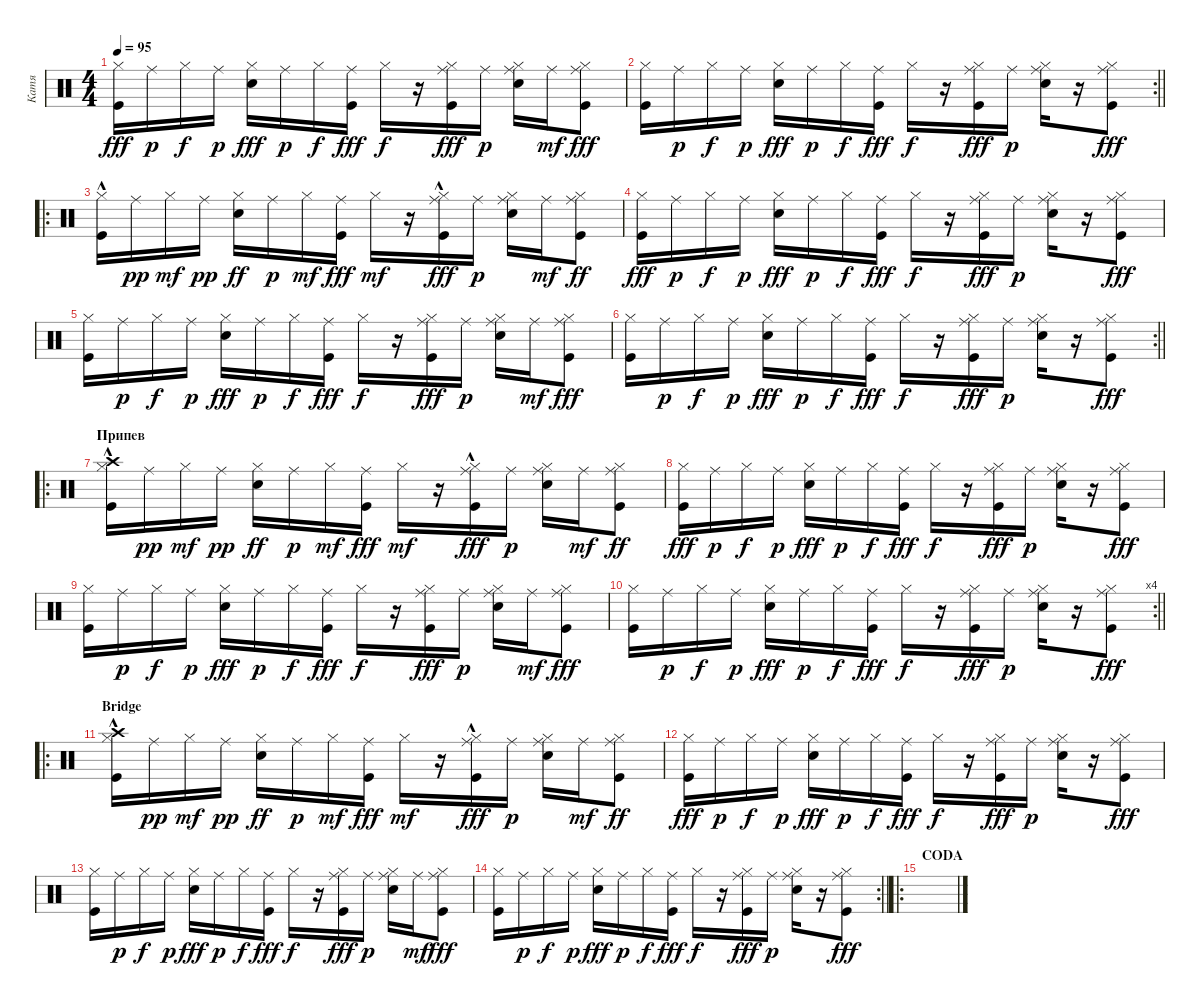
\track ("Катя" "Катя") {instrument percussion}
\staff {score}
\articulation defaults
\ts (4 4)
\tempo 95
\clef neutral
\ks c
("Hi-Hat (closed)" "Kick (hit)").16{dy fff} "Ride (middle)".16{dy p} "Hi-Hat (closed)".16{dy f} "Ride (middle)".16{dy p} ("Hi-Hat (closed)" "Snare (hit) 2").16{dy fff} "Ride (middle)".16{dy p} "Hi-Hat (closed)".16{dy f} ("Ride (middle)" "Kick (hit)").16{dy fff} "Hi-Hat (closed)".16{dy f} r.16 ("Hi-Hat (closed)" "Ride (middle)" "Kick (hit)").16{dy fff} "Ride (middle)".16{dy p} ("Hi-Hat (closed)" "Snare (hit) 2" "Ride (middle)").16 "Ride (middle)".16{dy mf} ("Hi-Hat (closed)" "Ride (middle)" "Kick (hit)").8{dy fff} |
\rc 2
\barLineRight lightlight
("Hi-Hat (closed)" "Kick (hit)").16 "Ride (middle)".16{dy p} "Hi-Hat (closed)".16{dy f} "Ride (middle)".16{dy p} ("Hi-Hat (closed)" "Snare (hit) 2").16{dy fff} "Ride (middle)".16{dy p} "Hi-Hat (closed)".16{dy f} ("Ride (middle)" "Kick (hit)").16{dy fff} "Hi-Hat (closed)".16{dy f} r.16 ("Hi-Hat (closed)" "Ride (middle)" "Kick (hit)").16{dy fff} "Ride (middle)".16{dy p} ("Hi-Hat (closed)" "Snare (hit) 2" "Ride (middle)").16 r.16 ("Hi-Hat (closed)" "Ride (middle)" "Kick (hit)").8{dy fff} |
\ro
("Hi-Hat (closed)" "Kick (hit)"{hac}).16 "Ride (middle)".16{dy pp} "Hi-Hat (closed)".16{dy mf} "Ride (middle)".16{dy pp} ("Hi-Hat (closed)" "Snare (hit) 2").16{dy ff} "Ride (middle)".16{dy p} "Hi-Hat (closed)".16{dy mf} ("Ride (middle)" "Kick (hit)").16{dy fff} "Hi-Hat (closed)".16{dy mf} r.16 ("Hi-Hat (closed)" "Ride (middle)" "Kick (hit)"{hac}).16{dy fff} "Ride (middle)".16{dy p} ("Hi-Hat (closed)" "Snare (hit) 2" "Ride (middle)").16 "Ride (middle)".16{dy mf} ("Hi-Hat (closed)" "Ride (middle)" "Kick (hit)").8{dy ff} |
("Hi-Hat (closed)" "Kick (hit)").16{dy fff} "Ride (middle)".16{dy p} "Hi-Hat (closed)".16{dy f} "Ride (middle)".16{dy p} ("Hi-Hat (closed)" "Snare (hit) 2").16{dy fff} "Ride (middle)".16{dy p} "Hi-Hat (closed)".16{dy f} ("Ride (middle)" "Kick (hit)").16{dy fff} "Hi-Hat (closed)".16{dy f} r.16 ("Hi-Hat (closed)" "Ride (middle)" "Kick (hit)").16{dy fff} "Ride (middle)".16{dy p} ("Hi-Hat (closed)" "Snare (hit) 2" "Ride (middle)").16 r.16 ("Hi-Hat (closed)" "Ride (middle)" "Kick (hit)").8{dy fff} |
("Hi-Hat (closed)" "Kick (hit)").16 "Ride (middle)".16{dy p} "Hi-Hat (closed)".16{dy f} "Ride (middle)".16{dy p} ("Hi-Hat (closed)" "Snare (hit) 2").16{dy fff} "Ride (middle)".16{dy p} "Hi-Hat (closed)".16{dy f} ("Ride (middle)" "Kick (hit)").16{dy fff} "Hi-Hat (closed)".16{dy f} r.16 ("Hi-Hat (closed)" "Ride (middle)" "Kick (hit)").16{dy fff} "Ride (middle)".16{dy p} ("Hi-Hat (closed)" "Snare (hit) 2" "Ride (middle)").16 "Ride (middle)".16{dy mf} ("Hi-Hat (closed)" "Ride (middle)" "Kick (hit)").8{dy fff} |
\rc 2
\barLineRight lightlight
("Hi-Hat (closed)" "Kick (hit)").16 "Ride (middle)".16{dy p} "Hi-Hat (closed)".16{dy f} "Ride (middle)".16{dy p} ("Hi-Hat (closed)" "Snare (hit) 2").16{dy fff} "Ride (middle)".16{dy p} "Hi-Hat (closed)".16{dy f} ("Ride (middle)" "Kick (hit)").16{dy fff} "Hi-Hat (closed)".16{dy f} r.16 ("Hi-Hat (closed)" "Ride (middle)" "Kick (hit)").16{dy fff} "Ride (middle)".16{dy p} ("Hi-Hat (closed)" "Snare (hit) 2" "Ride (middle)").16 r.16 ("Hi-Hat (closed)" "Ride (middle)" "Kick (hit)").8{dy fff} |
\ro
\section ("" "Припев")
("Hi-Hat (closed)" "Crash high (hit)" "Kick (hit)"{hac}).16 "Ride (middle)".16{dy pp} "Hi-Hat (closed)".16{dy mf} "Ride (middle)".16{dy pp} ("Hi-Hat (closed)" "Snare (hit) 2").16{dy ff} "Ride (middle)".16{dy p} "Hi-Hat (closed)".16{dy mf} ("Ride (middle)" "Kick (hit)").16{dy fff} "Hi-Hat (closed)".16{dy mf} r.16 ("Hi-Hat (closed)" "Ride (middle)" "Kick (hit)"{hac}).16{dy fff} "Ride (middle)".16{dy p} ("Hi-Hat (closed)" "Snare (hit) 2" "Ride (middle)").16 "Ride (middle)".16{dy mf} ("Hi-Hat (closed)" "Ride (middle)" "Kick (hit)").8{dy ff} |
("Hi-Hat (closed)" "Kick (hit)").16{dy fff} "Ride (middle)".16{dy p} "Hi-Hat (closed)".16{dy f} "Ride (middle)".16{dy p} ("Hi-Hat (closed)" "Snare (hit) 2").16{dy fff} "Ride (middle)".16{dy p} "Hi-Hat (closed)".16{dy f} ("Ride (middle)" "Kick (hit)").16{dy fff} "Hi-Hat (closed)".16{dy f} r.16 ("Hi-Hat (closed)" "Ride (middle)" "Kick (hit)").16{dy fff} "Ride (middle)".16{dy p} ("Hi-Hat (closed)" "Snare (hit) 2" "Ride (middle)").16 r.16 ("Hi-Hat (closed)" "Ride (middle)" "Kick (hit)").8{dy fff} |
("Hi-Hat (closed)" "Kick (hit)").16 "Ride (middle)".16{dy p} "Hi-Hat (closed)".16{dy f} "Ride (middle)".16{dy p} ("Hi-Hat (closed)" "Snare (hit) 2").16{dy fff} "Ride (middle)".16{dy p} "Hi-Hat (closed)".16{dy f} ("Ride (middle)" "Kick (hit)").16{dy fff} "Hi-Hat (closed)".16{dy f} r.16 ("Hi-Hat (closed)" "Ride (middle)" "Kick (hit)").16{dy fff} "Ride (middle)".16{dy p} ("Hi-Hat (closed)" "Snare (hit) 2" "Ride (middle)").16 "Ride (middle)".16{dy mf} ("Hi-Hat (closed)" "Ride (middle)" "Kick (hit)").8{dy fff} |
\rc 4
\barLineRight lightlight
("Hi-Hat (closed)" "Kick (hit)").16 "Ride (middle)".16{dy p} "Hi-Hat (closed)".16{dy f} "Ride (middle)".16{dy p} ("Hi-Hat (closed)" "Snare (hit) 2").16{dy fff} "Ride (middle)".16{dy p} "Hi-Hat (closed)".16{dy f} ("Ride (middle)" "Kick (hit)").16{dy fff} "Hi-Hat (closed)".16{dy f} r.16 ("Hi-Hat (closed)" "Ride (middle)" "Kick (hit)").16{dy fff} "Ride (middle)".16{dy p} ("Hi-Hat (closed)" "Snare (hit) 2" "Ride (middle)").16 r.16 ("Hi-Hat (closed)" "Ride (middle)" "Kick (hit)").8{dy fff} |
\ro
\section ("" "Bridge")
("Hi-Hat (closed)" "Crash high (hit)" "Kick (hit)"{hac}).16 "Ride (middle)".16{dy pp} "Hi-Hat (closed)".16{dy mf} "Ride (middle)".16{dy pp} ("Hi-Hat (closed)" "Snare (hit) 2").16{dy ff} "Ride (middle)".16{dy p} "Hi-Hat (closed)".16{dy mf} ("Ride (middle)" "Kick (hit)").16{dy fff} "Hi-Hat (closed)".16{dy mf} r.16 ("Hi-Hat (closed)" "Ride (middle)" "Kick (hit)"{hac}).16{dy fff} "Ride (middle)".16{dy p} ("Hi-Hat (closed)" "Snare (hit) 2" "Ride (middle)").16 "Ride (middle)".16{dy mf} ("Hi-Hat (closed)" "Ride (middle)" "Kick (hit)").8{dy ff} |
("Hi-Hat (closed)" "Kick (hit)").16{dy fff} "Ride (middle)".16{dy p} "Hi-Hat (closed)".16{dy f} "Ride (middle)".16{dy p} ("Hi-Hat (closed)" "Snare (hit) 2").16{dy fff} "Ride (middle)".16{dy p} "Hi-Hat (closed)".16{dy f} ("Ride (middle)" "Kick (hit)").16{dy fff} "Hi-Hat (closed)".16{dy f} r.16 ("Hi-Hat (closed)" "Ride (middle)" "Kick (hit)").16{dy fff} "Ride (middle)".16{dy p} ("Hi-Hat (closed)" "Snare (hit) 2" "Ride (middle)").16 r.16 ("Hi-Hat (closed)" "Ride (middle)" "Kick (hit)").8{dy fff} |
("Hi-Hat (closed)" "Kick (hit)").16 "Ride (middle)".16{dy p} "Hi-Hat (closed)".16{dy f} "Ride (middle)".16{dy p} ("Hi-Hat (closed)" "Snare (hit) 2").16{dy fff} "Ride (middle)".16{dy p} "Hi-Hat (closed)".16{dy f} ("Ride (middle)" "Kick (hit)").16{dy fff} "Hi-Hat (closed)".16{dy f} r.16 ("Hi-Hat (closed)" "Ride (middle)" "Kick (hit)").16{dy fff} "Ride (middle)".16{dy p} ("Hi-Hat (closed)" "Snare (hit) 2" "Ride (middle)").16 "Ride (middle)".16{dy mf} ("Hi-Hat (closed)" "Ride (middle)" "Kick (hit)").8{dy fff} |
\rc 2
\barLineRight lightlight
("Hi-Hat (closed)" "Kick (hit)").16 "Ride (middle)".16{dy p} "Hi-Hat (closed)".16{dy f} "Ride (middle)".16{dy p} ("Hi-Hat (closed)" "Snare (hit) 2").16{dy fff} "Ride (middle)".16{dy p} "Hi-Hat (closed)".16{dy f} ("Ride (middle)" "Kick (hit)").16{dy fff} "Hi-Hat (closed)".16{dy f} r.16 ("Hi-Hat (closed)" "Ride (middle)" "Kick (hit)").16{dy fff} "Ride (middle)".16{dy p} ("Hi-Hat (closed)" "Snare (hit) 2" "Ride (middle)").16 r.16 ("Hi-Hat (closed)" "Ride (middle)" "Kick (hit)").8{dy fff} |
\ro
\section ("" "CODA")
